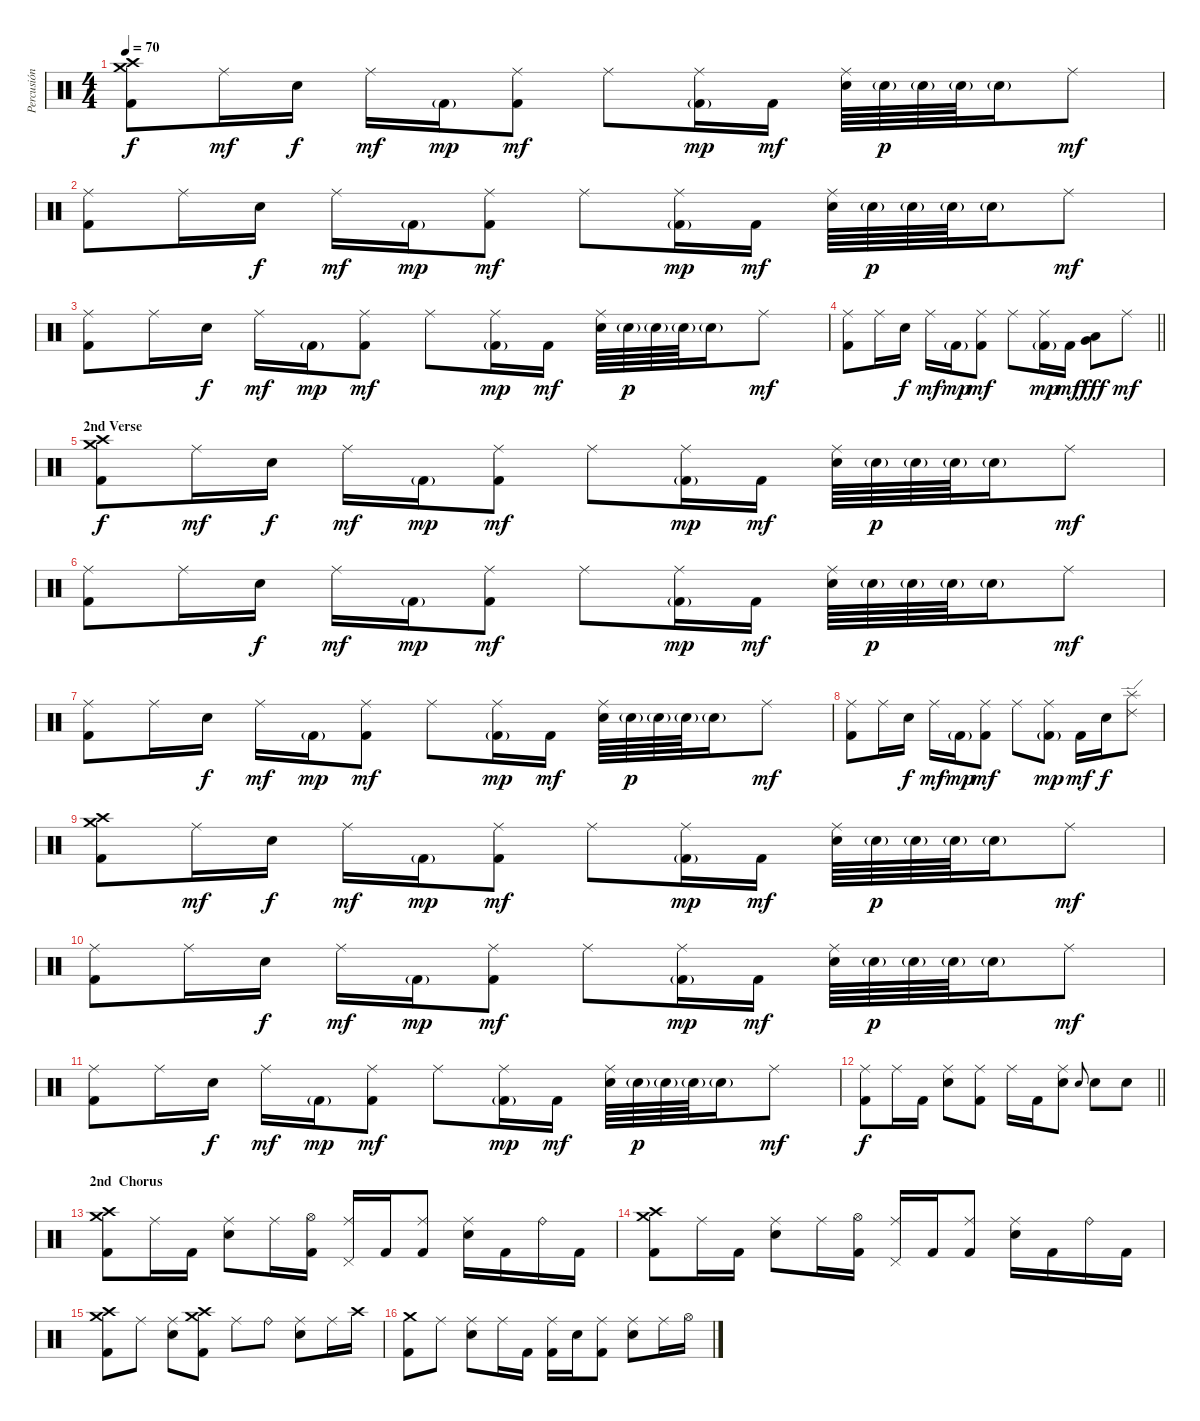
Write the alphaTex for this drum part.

\track ("Percusión" "Percusión") {instrument percussion}
\staff {score}
\articulation defaults
\ts (4 4)
\tempo 70
\clef neutral
\ks c
("Crash medium (hit)" "Crash high (hit)" "Kick (hit) 2").8{dy f} "Ride (middle)".16{dy mf} "Electric Snare (hit)".16{dy f} "Ride (middle)".16{dy mf} "Kick (hit) 2"{g}.16{dy mp} ("Ride (middle)" "Kick (hit) 2").8{dy mf} "Ride (middle)".8 ("Ride (middle)" "Kick (hit) 2"{g}).16{dy mp} "Kick (hit) 2".16{dy mf} ("Ride (middle)" "Electric Snare (hit)").64 "Electric Snare (hit)"{g}.64{dy p} "Electric Snare (hit)"{g}.64 "Electric Snare (hit)"{g}.64 "Electric Snare (hit)"{g}.16 "Ride (middle)".8{dy mf} |
("Ride (middle)" "Kick (hit) 2").8 "Ride (middle)".16 "Electric Snare (hit)".16{dy f} "Ride (middle)".16{dy mf} "Kick (hit) 2"{g}.16{dy mp} ("Ride (middle)" "Kick (hit) 2").8{dy mf} "Ride (middle)".8 ("Ride (middle)" "Kick (hit) 2"{g}).16{dy mp} "Kick (hit) 2".16{dy mf} ("Ride (middle)" "Electric Snare (hit)").64 "Electric Snare (hit)"{g}.64{dy p} "Electric Snare (hit)"{g}.64 "Electric Snare (hit)"{g}.64 "Electric Snare (hit)"{g}.16 "Ride (middle)".8{dy mf} |
("Ride (middle)" "Kick (hit) 2").8 "Ride (middle)".16 "Electric Snare (hit)".16{dy f} "Ride (middle)".16{dy mf} "Kick (hit) 2"{g}.16{dy mp} ("Ride (middle)" "Kick (hit) 2").8{dy mf} "Ride (middle)".8 ("Ride (middle)" "Kick (hit) 2"{g}).16{dy mp} "Kick (hit) 2".16{dy mf} ("Ride (middle)" "Electric Snare (hit)").64 "Electric Snare (hit)"{g}.64{dy p} "Electric Snare (hit)"{g}.64 "Electric Snare (hit)"{g}.64 "Electric Snare (hit)"{g}.16 "Ride (middle)".8{dy mf} |
\barLineRight lightlight
("Ride (middle)" "Kick (hit) 2").8 "Ride (middle)".16 "Electric Snare (hit)".16{dy f} "Ride (middle)".16{dy mf} "Kick (hit) 2"{g}.16{dy mp} ("Ride (middle)" "Kick (hit) 2").8{dy mf} "Ride (middle)".8 ("Ride (middle)" "Kick (hit) 2"{g}).16{dy mp} "Kick (hit) 2".16{dy mf} ("Very Low Tom (hit)" "Low Floor Tom (hit)").8{dy fff} "Ride (middle)".8{dy mf} |
\section ("" "2nd Verse")
("Crash medium (hit)" "Crash high (hit)" "Kick (hit) 2").8{dy f} "Ride (middle)".16{dy mf} "Electric Snare (hit)".16{dy f} "Ride (middle)".16{dy mf} "Kick (hit) 2"{g}.16{dy mp} ("Ride (middle)" "Kick (hit) 2").8{dy mf} "Ride (middle)".8 ("Ride (middle)" "Kick (hit) 2"{g}).16{dy mp} "Kick (hit) 2".16{dy mf} ("Ride (middle)" "Electric Snare (hit)").64 "Electric Snare (hit)"{g}.64{dy p} "Electric Snare (hit)"{g}.64 "Electric Snare (hit)"{g}.64 "Electric Snare (hit)"{g}.16 "Ride (middle)".8{dy mf} |
("Ride (middle)" "Kick (hit) 2").8 "Ride (middle)".16 "Electric Snare (hit)".16{dy f} "Ride (middle)".16{dy mf} "Kick (hit) 2"{g}.16{dy mp} ("Ride (middle)" "Kick (hit) 2").8{dy mf} "Ride (middle)".8 ("Ride (middle)" "Kick (hit) 2"{g}).16{dy mp} "Kick (hit) 2".16{dy mf} ("Ride (middle)" "Electric Snare (hit)").64 "Electric Snare (hit)"{g}.64{dy p} "Electric Snare (hit)"{g}.64 "Electric Snare (hit)"{g}.64 "Electric Snare (hit)"{g}.16 "Ride (middle)".8{dy mf} |
("Ride (middle)" "Kick (hit) 2").8 "Ride (middle)".16 "Electric Snare (hit)".16{dy f} "Ride (middle)".16{dy mf} "Kick (hit) 2"{g}.16{dy mp} ("Ride (middle)" "Kick (hit) 2").8{dy mf} "Ride (middle)".8 ("Ride (middle)" "Kick (hit) 2"{g}).16{dy mp} "Kick (hit) 2".16{dy mf} ("Ride (middle)" "Electric Snare (hit)").64 "Electric Snare (hit)"{g}.64{dy p} "Electric Snare (hit)"{g}.64 "Electric Snare (hit)"{g}.64 "Electric Snare (hit)"{g}.16 "Ride (middle)".8{dy mf} |
("Ride (middle)" "Kick (hit) 2").8 "Ride (middle)".16 "Electric Snare (hit)".16{dy f} "Ride (middle)".16{dy mf} "Kick (hit) 2"{g}.16{dy mp} ("Ride (middle)" "Kick (hit) 2").8{dy mf} "Ride (middle)".8 ("Ride (middle)" "Kick (hit) 2"{g}).8{dy mp} "Kick (hit) 2".16{dy mf} "Electric Snare (hit)".16{dy f} ("Splash (hit)" "Ride (edge) 2").8 |
("Crash medium (hit)" "Crash high (hit)" "Kick (hit) 2").8 "Ride (middle)".16{dy mf} "Electric Snare (hit)".16{dy f} "Ride (middle)".16{dy mf} "Kick (hit) 2"{g}.16{dy mp} ("Ride (middle)" "Kick (hit) 2").8{dy mf} "Ride (middle)".8 ("Ride (middle)" "Kick (hit) 2"{g}).16{dy mp} "Kick (hit) 2".16{dy mf} ("Ride (middle)" "Electric Snare (hit)").64 "Electric Snare (hit)"{g}.64{dy p} "Electric Snare (hit)"{g}.64 "Electric Snare (hit)"{g}.64 "Electric Snare (hit)"{g}.16 "Ride (middle)".8{dy mf} |
("Ride (middle)" "Kick (hit) 2").8 "Ride (middle)".16 "Electric Snare (hit)".16{dy f} "Ride (middle)".16{dy mf} "Kick (hit) 2"{g}.16{dy mp} ("Ride (middle)" "Kick (hit) 2").8{dy mf} "Ride (middle)".8 ("Ride (middle)" "Kick (hit) 2"{g}).16{dy mp} "Kick (hit) 2".16{dy mf} ("Ride (middle)" "Electric Snare (hit)").64 "Electric Snare (hit)"{g}.64{dy p} "Electric Snare (hit)"{g}.64 "Electric Snare (hit)"{g}.64 "Electric Snare (hit)"{g}.16 "Ride (middle)".8{dy mf} |
("Ride (middle)" "Kick (hit) 2").8 "Ride (middle)".16 "Electric Snare (hit)".16{dy f} "Ride (middle)".16{dy mf} "Kick (hit) 2"{g}.16{dy mp} ("Ride (middle)" "Kick (hit) 2").8{dy mf} "Ride (middle)".8 ("Ride (middle)" "Kick (hit) 2"{g}).16{dy mp} "Kick (hit) 2".16{dy mf} ("Ride (middle)" "Electric Snare (hit)").64 "Electric Snare (hit)"{g}.64{dy p} "Electric Snare (hit)"{g}.64 "Electric Snare (hit)"{g}.64 "Electric Snare (hit)"{g}.16 "Ride (middle)".8{dy mf} |
\barLineRight lightlight
("Ride (middle)" "Kick (hit) 2").8{dy f} "Ride (middle)".16 "Kick (hit) 2".16 ("Ride (middle)" "Electric Snare (hit)").8 ("Ride (middle)" "Kick (hit) 2").8 "Ride (middle)".16 "Kick (hit) 2".16 ("Ride (middle)" "Electric Snare (hit)").8 "Electric Snare (hit)".8{gr onbeat} "Electric Snare (hit)".8 "Electric Snare (hit)".8 |
\section ("" "2nd  Chorus")
("Crash medium (hit)" "Crash high (hit)" "Kick (hit) 2").8 "Ride (middle)".16 "Kick (hit) 2".16 ("Ride (middle)" "Electric Snare (hit)").8 "Ride (middle)".16 ("Hi-Hat (open)" "Kick (hit) 2").16 ("Ride (middle)" "Pedal Hi-Hat (hit)").16 "Kick (hit) 2".16 ("Ride (middle)" "Kick (hit) 2").8 ("Ride (middle)" "Electric Snare (hit)").16 "Kick (hit) 2".16 "Ride (bell)".16 "Kick (hit) 2".16 |
("Crash medium (hit)" "Crash high (hit)" "Kick (hit) 2").8 "Ride (middle)".16 "Kick (hit) 2".16 ("Ride (middle)" "Electric Snare (hit)").8 "Ride (middle)".16 ("Hi-Hat (open)" "Kick (hit) 2").16 ("Ride (middle)" "Pedal Hi-Hat (hit)").16 "Kick (hit) 2".16 ("Ride (middle)" "Kick (hit) 2").8 ("Ride (middle)" "Electric Snare (hit)").16 "Kick (hit) 2".16 "Ride (bell)".16 "Kick (hit) 2".16 |
("Crash medium (hit)" "Crash high (hit)" "Kick (hit) 2").8 "Ride (middle)".8 ("Ride (middle)" "Electric Snare (hit)").8 ("Crash medium (hit)" "Crash high (hit)" "Kick (hit) 2").8 "Ride (middle)".8 "Ride (bell)".8 ("Ride (middle)" "Electric Snare (hit)").8 "Ride (middle)".16 "Crash high (hit)".16 |
("Crash medium (hit)" "Kick (hit) 2").8 "Ride (middle)".8 ("Ride (middle)" "Electric Snare (hit)").8 "Ride (middle)".16 "Kick (hit) 2".16 ("Ride (middle)" "Kick (hit) 2").16 "Electric Snare (hit)".16 ("Ride (middle)" "Kick (hit) 2").8 ("Ride (middle)" "Electric Snare (hit)").8 "Ride (middle)".16 "Hi-Hat (open)".16
